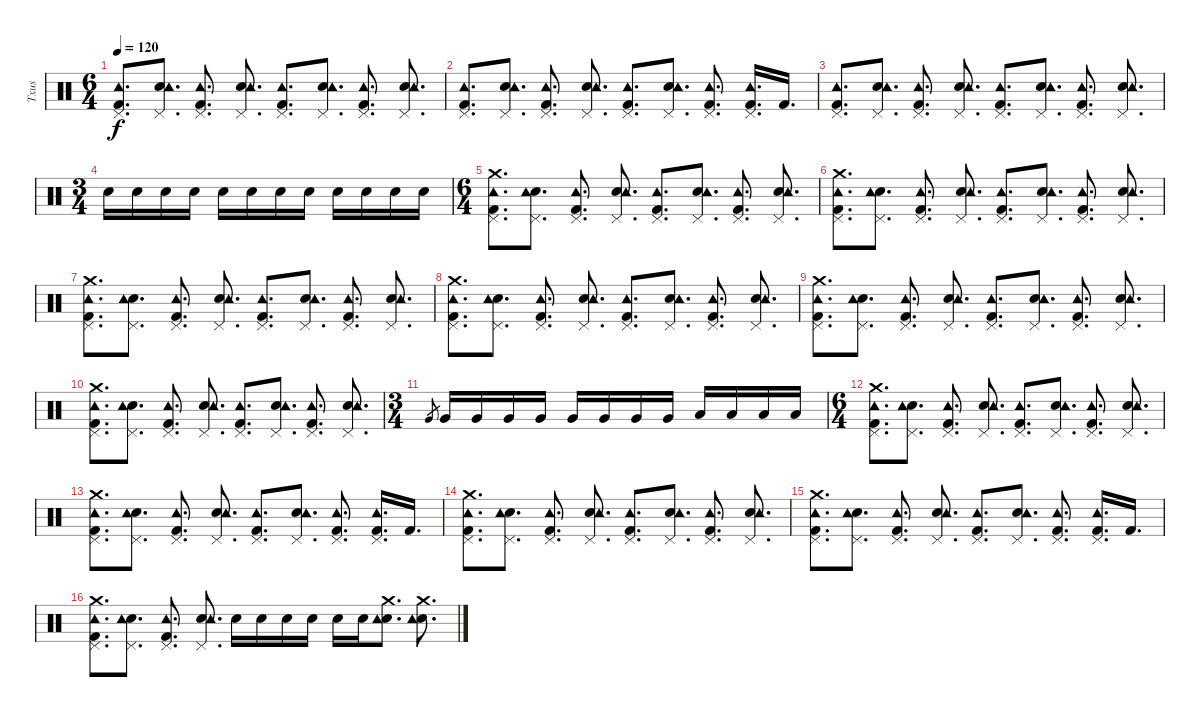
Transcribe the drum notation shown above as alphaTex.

\track ("Txus" "Txus") {instrument percussion}
\staff {score}
\articulation defaults
\ts (6 4)
\tempo 120
\clef neutral
\ks c
("Kick (hit) 2" "Pedal Hi-Hat (hit)" "Tambourine (hit)").8{d dy f} ("Snare (hit) 2" "Pedal Hi-Hat (hit)" "Tambourine (hit)").8{d} ("Kick (hit) 2" "Pedal Hi-Hat (hit)" "Tambourine (hit)").8{d} ("Snare (hit) 2" "Pedal Hi-Hat (hit)" "Tambourine (hit)").8{d} ("Kick (hit) 2" "Pedal Hi-Hat (hit)" "Tambourine (hit)").8{d} ("Snare (hit) 2" "Pedal Hi-Hat (hit)" "Tambourine (hit)").8{d} ("Kick (hit) 2" "Pedal Hi-Hat (hit)" "Tambourine (hit)").8{d} ("Snare (hit) 2" "Pedal Hi-Hat (hit)" "Tambourine (hit)").8{d} |
("Kick (hit) 2" "Pedal Hi-Hat (hit)" "Tambourine (hit)").8{d} ("Snare (hit) 2" "Pedal Hi-Hat (hit)" "Tambourine (hit)").8{d} ("Kick (hit) 2" "Pedal Hi-Hat (hit)" "Tambourine (hit)").8{d} ("Snare (hit) 2" "Pedal Hi-Hat (hit)" "Tambourine (hit)").8{d} ("Kick (hit) 2" "Pedal Hi-Hat (hit)" "Tambourine (hit)").8{d} ("Snare (hit) 2" "Pedal Hi-Hat (hit)" "Tambourine (hit)").8{d} ("Kick (hit) 2" "Pedal Hi-Hat (hit)" "Tambourine (hit)").8{d} ("Kick (hit) 2" "Pedal Hi-Hat (hit)" "Tambourine (hit)").16{d} "Kick (hit) 2".16{d} |
("Kick (hit) 2" "Pedal Hi-Hat (hit)" "Tambourine (hit)").8{d} ("Snare (hit) 2" "Pedal Hi-Hat (hit)" "Tambourine (hit)").8{d} ("Kick (hit) 2" "Pedal Hi-Hat (hit)" "Tambourine (hit)").8{d} ("Snare (hit) 2" "Pedal Hi-Hat (hit)" "Tambourine (hit)").8{d} ("Kick (hit) 2" "Pedal Hi-Hat (hit)" "Tambourine (hit)").8{d} ("Snare (hit) 2" "Pedal Hi-Hat (hit)" "Tambourine (hit)").8{d} ("Kick (hit) 2" "Pedal Hi-Hat (hit)" "Tambourine (hit)").8{d} ("Snare (hit) 2" "Pedal Hi-Hat (hit)" "Tambourine (hit)").8{d} |
\ts (3 4)
"Snare (hit) 2".16 "Snare (hit) 2".16 "Snare (hit) 2".16 "Snare (hit) 2".16 "Snare (hit) 2".16 "Snare (hit) 2".16 "Snare (hit) 2".16 "Snare (hit) 2".16 "Snare (hit) 2".16 "Snare (hit) 2".16 "Snare (hit) 2".16 "Snare (hit) 2".16 |
\ts (6 4)
("Kick (hit) 2" "Pedal Hi-Hat (hit)" "Crash medium (hit)" "Tambourine (hit)").8{d} ("Snare (hit) 2" "Pedal Hi-Hat (hit)" "Tambourine (hit)").8{d} ("Kick (hit) 2" "Pedal Hi-Hat (hit)" "Tambourine (hit)").8{d} ("Snare (hit) 2" "Pedal Hi-Hat (hit)" "Tambourine (hit)").8{d} ("Kick (hit) 2" "Pedal Hi-Hat (hit)" "Tambourine (hit)").8{d} ("Snare (hit) 2" "Pedal Hi-Hat (hit)" "Tambourine (hit)").8{d} ("Kick (hit) 2" "Pedal Hi-Hat (hit)" "Tambourine (hit)").8{d} ("Snare (hit) 2" "Pedal Hi-Hat (hit)" "Tambourine (hit)").8{d} |
("Kick (hit) 2" "Pedal Hi-Hat (hit)" "Crash medium (hit)" "Tambourine (hit)").8{d} ("Snare (hit) 2" "Pedal Hi-Hat (hit)" "Tambourine (hit)").8{d} ("Kick (hit) 2" "Pedal Hi-Hat (hit)" "Tambourine (hit)").8{d} ("Snare (hit) 2" "Pedal Hi-Hat (hit)" "Tambourine (hit)").8{d} ("Kick (hit) 2" "Pedal Hi-Hat (hit)" "Tambourine (hit)").8{d} ("Snare (hit) 2" "Pedal Hi-Hat (hit)" "Tambourine (hit)").8{d} ("Kick (hit) 2" "Pedal Hi-Hat (hit)" "Tambourine (hit)").8{d} ("Snare (hit) 2" "Pedal Hi-Hat (hit)" "Tambourine (hit)").8{d} |
("Kick (hit) 2" "Pedal Hi-Hat (hit)" "Crash medium (hit)" "Tambourine (hit)").8{d} ("Snare (hit) 2" "Pedal Hi-Hat (hit)" "Tambourine (hit)").8{d} ("Kick (hit) 2" "Pedal Hi-Hat (hit)" "Tambourine (hit)").8{d} ("Snare (hit) 2" "Pedal Hi-Hat (hit)" "Tambourine (hit)").8{d} ("Kick (hit) 2" "Pedal Hi-Hat (hit)" "Tambourine (hit)").8{d} ("Snare (hit) 2" "Pedal Hi-Hat (hit)" "Tambourine (hit)").8{d} ("Kick (hit) 2" "Pedal Hi-Hat (hit)" "Tambourine (hit)").8{d} ("Snare (hit) 2" "Pedal Hi-Hat (hit)" "Tambourine (hit)").8{d} |
("Kick (hit) 2" "Pedal Hi-Hat (hit)" "Crash medium (hit)" "Tambourine (hit)").8{d} ("Snare (hit) 2" "Pedal Hi-Hat (hit)" "Tambourine (hit)").8{d} ("Kick (hit) 2" "Pedal Hi-Hat (hit)" "Tambourine (hit)").8{d} ("Snare (hit) 2" "Pedal Hi-Hat (hit)" "Tambourine (hit)").8{d} ("Kick (hit) 2" "Pedal Hi-Hat (hit)" "Tambourine (hit)").8{d} ("Snare (hit) 2" "Pedal Hi-Hat (hit)" "Tambourine (hit)").8{d} ("Kick (hit) 2" "Pedal Hi-Hat (hit)" "Tambourine (hit)").8{d} ("Snare (hit) 2" "Pedal Hi-Hat (hit)" "Tambourine (hit)").8{d} |
("Kick (hit) 2" "Pedal Hi-Hat (hit)" "Crash medium (hit)" "Tambourine (hit)").8{d} ("Snare (hit) 2" "Pedal Hi-Hat (hit)" "Tambourine (hit)").8{d} ("Kick (hit) 2" "Pedal Hi-Hat (hit)" "Tambourine (hit)").8{d} ("Snare (hit) 2" "Pedal Hi-Hat (hit)" "Tambourine (hit)").8{d} ("Kick (hit) 2" "Pedal Hi-Hat (hit)" "Tambourine (hit)").8{d} ("Snare (hit) 2" "Pedal Hi-Hat (hit)" "Tambourine (hit)").8{d} ("Kick (hit) 2" "Pedal Hi-Hat (hit)" "Tambourine (hit)").8{d} ("Snare (hit) 2" "Pedal Hi-Hat (hit)" "Tambourine (hit)").8{d} |
("Kick (hit) 2" "Pedal Hi-Hat (hit)" "Crash medium (hit)" "Tambourine (hit)").8{d} ("Snare (hit) 2" "Pedal Hi-Hat (hit)" "Tambourine (hit)").8{d} ("Kick (hit) 2" "Pedal Hi-Hat (hit)" "Tambourine (hit)").8{d} ("Snare (hit) 2" "Pedal Hi-Hat (hit)" "Tambourine (hit)").8{d} ("Kick (hit) 2" "Pedal Hi-Hat (hit)" "Tambourine (hit)").8{d} ("Snare (hit) 2" "Pedal Hi-Hat (hit)" "Tambourine (hit)").8{d} ("Kick (hit) 2" "Pedal Hi-Hat (hit)" "Tambourine (hit)").8{d} ("Snare (hit) 2" "Pedal Hi-Hat (hit)" "Tambourine (hit)").8{d} |
\ts (3 4)
"Very Low Tom (hit)".8{gr} "Very Low Tom (hit)".16 "Very Low Tom (hit)".16 "Very Low Tom (hit)".16 "Very Low Tom (hit)".16 "Very Low Tom (hit)".16 "Very Low Tom (hit)".16 "Very Low Tom (hit)".16 "Very Low Tom (hit)".16 "Low Floor Tom (hit)".16 "Low Floor Tom (hit)".16 "Low Floor Tom (hit)".16 "Low Floor Tom (hit)".16 |
\ts (6 4)
("Kick (hit) 2" "Pedal Hi-Hat (hit)" "Crash medium (hit)" "Tambourine (hit)").8{d} ("Snare (hit) 2" "Pedal Hi-Hat (hit)" "Tambourine (hit)").8{d} ("Kick (hit) 2" "Pedal Hi-Hat (hit)" "Tambourine (hit)").8{d} ("Snare (hit) 2" "Pedal Hi-Hat (hit)" "Tambourine (hit)").8{d} ("Kick (hit) 2" "Pedal Hi-Hat (hit)" "Tambourine (hit)").8{d} ("Snare (hit) 2" "Pedal Hi-Hat (hit)" "Tambourine (hit)").8{d} ("Kick (hit) 2" "Pedal Hi-Hat (hit)" "Tambourine (hit)").8{d} ("Snare (hit) 2" "Pedal Hi-Hat (hit)" "Tambourine (hit)").8{d} |
("Kick (hit) 2" "Pedal Hi-Hat (hit)" "Crash medium (hit)" "Tambourine (hit)").8{d} ("Snare (hit) 2" "Pedal Hi-Hat (hit)" "Tambourine (hit)").8{d} ("Kick (hit) 2" "Pedal Hi-Hat (hit)" "Tambourine (hit)").8{d} ("Snare (hit) 2" "Pedal Hi-Hat (hit)" "Tambourine (hit)").8{d} ("Kick (hit) 2" "Pedal Hi-Hat (hit)" "Tambourine (hit)").8{d} ("Snare (hit) 2" "Pedal Hi-Hat (hit)" "Tambourine (hit)").8{d} ("Kick (hit) 2" "Pedal Hi-Hat (hit)" "Tambourine (hit)").8{d} ("Kick (hit) 2" "Pedal Hi-Hat (hit)" "Tambourine (hit)").16{d} "Kick (hit) 2".16{d} |
("Kick (hit) 2" "Pedal Hi-Hat (hit)" "Crash medium (hit)" "Tambourine (hit)").8{d} ("Snare (hit) 2" "Pedal Hi-Hat (hit)" "Tambourine (hit)").8{d} ("Kick (hit) 2" "Pedal Hi-Hat (hit)" "Tambourine (hit)").8{d} ("Snare (hit) 2" "Pedal Hi-Hat (hit)" "Tambourine (hit)").8{d} ("Kick (hit) 2" "Pedal Hi-Hat (hit)" "Tambourine (hit)").8{d} ("Snare (hit) 2" "Pedal Hi-Hat (hit)" "Tambourine (hit)").8{d} ("Kick (hit) 2" "Pedal Hi-Hat (hit)" "Tambourine (hit)").8{d} ("Snare (hit) 2" "Pedal Hi-Hat (hit)" "Tambourine (hit)").8{d} |
("Kick (hit) 2" "Pedal Hi-Hat (hit)" "Crash medium (hit)" "Tambourine (hit)").8{d} ("Snare (hit) 2" "Pedal Hi-Hat (hit)" "Tambourine (hit)").8{d} ("Kick (hit) 2" "Pedal Hi-Hat (hit)" "Tambourine (hit)").8{d} ("Snare (hit) 2" "Pedal Hi-Hat (hit)" "Tambourine (hit)").8{d} ("Kick (hit) 2" "Pedal Hi-Hat (hit)" "Tambourine (hit)").8{d} ("Snare (hit) 2" "Pedal Hi-Hat (hit)" "Tambourine (hit)").8{d} ("Kick (hit) 2" "Pedal Hi-Hat (hit)" "Tambourine (hit)").8{d} ("Kick (hit) 2" "Pedal Hi-Hat (hit)" "Tambourine (hit)").16{d} "Kick (hit) 2".16{d} |
("Kick (hit) 2" "Pedal Hi-Hat (hit)" "Crash medium (hit)" "Tambourine (hit)").8{d} ("Snare (hit) 2" "Pedal Hi-Hat (hit)" "Tambourine (hit)").8{d} ("Kick (hit) 2" "Pedal Hi-Hat (hit)" "Tambourine (hit)").8{d} ("Snare (hit) 2" "Pedal Hi-Hat (hit)" "Tambourine (hit)").8{d} "Snare (hit) 2".16 "Snare (hit) 2".16 "Snare (hit) 2".16 "Snare (hit) 2".16 "Snare (hit) 2".16 "Snare (hit) 2".16 ("Snare (hit) 2" "Crash medium (hit)" "Tambourine (hit)").8{d} ("Snare (hit) 2" "Crash medium (hit)" "Tambourine (hit)").8{d}
